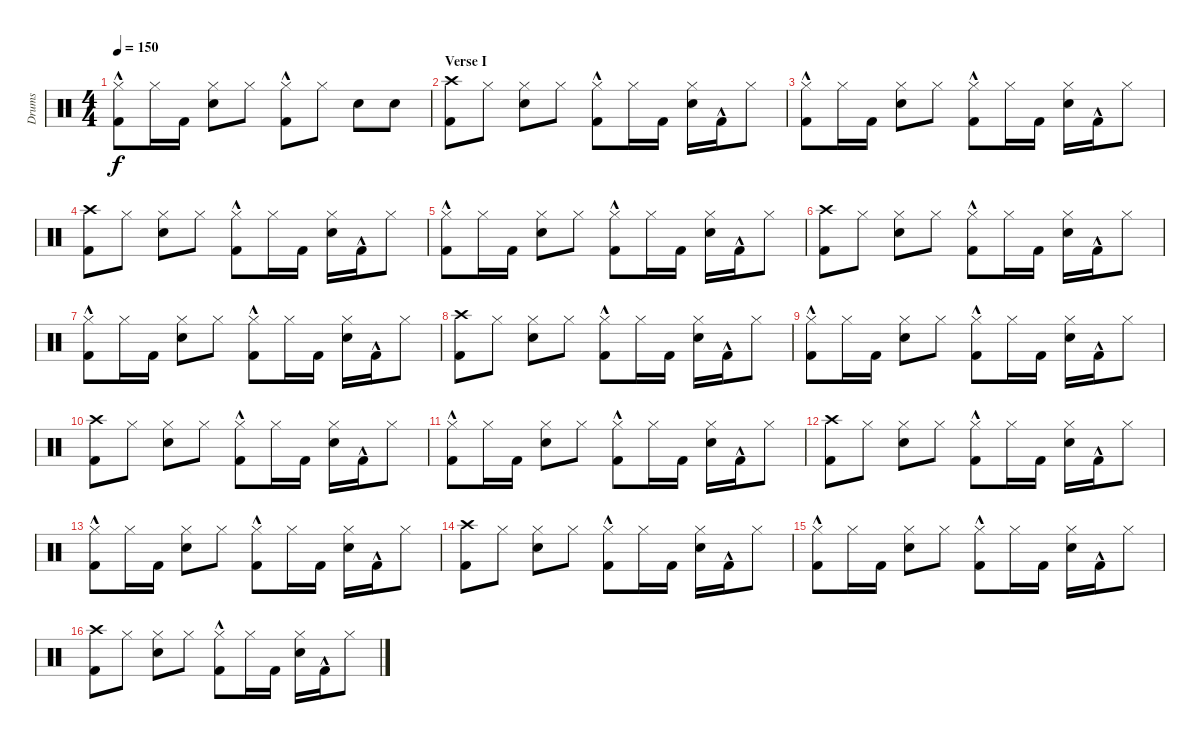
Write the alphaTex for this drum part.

\track ("Drums" "Drums") {instrument percussion}
\staff {score}
\articulation defaults
\ts (4 4)
\tempo 150
\clef neutral
\ks c
("Hi-Hat (closed)" "Kick (hit) 2"{hac}).8{dy f} "Hi-Hat (closed)".16 "Kick (hit) 2".16 ("Hi-Hat (closed)" "Electric Snare (hit)").8 "Hi-Hat (closed)".8 ("Hi-Hat (closed)" "Kick (hit) 2"{hac}).8 "Hi-Hat (closed)".8 "Electric Snare (hit)".8 "Electric Snare (hit)".8 |
\section ("" "Verse I")
("Crash high (hit)" "Kick (hit) 2").8 "Hi-Hat (closed)".8 ("Hi-Hat (closed)" "Electric Snare (hit)").8 "Hi-Hat (closed)".8 ("Hi-Hat (closed)" "Kick (hit) 2"{hac}).8 "Hi-Hat (closed)".16 "Kick (hit) 2".16 ("Hi-Hat (closed)" "Electric Snare (hit)").16 "Kick (hit) 2"{hac}.16 "Hi-Hat (closed)".8 |
("Hi-Hat (closed)" "Kick (hit) 2"{hac}).8 "Hi-Hat (closed)".16 "Kick (hit) 2".16 ("Hi-Hat (closed)" "Electric Snare (hit)").8 "Hi-Hat (closed)".8 ("Hi-Hat (closed)" "Kick (hit) 2"{hac}).8 "Hi-Hat (closed)".16 "Kick (hit) 2".16 ("Hi-Hat (closed)" "Electric Snare (hit)").16 "Kick (hit) 2"{hac}.16 "Hi-Hat (closed)".8 |
("Crash high (hit)" "Kick (hit) 2").8 "Hi-Hat (closed)".8 ("Hi-Hat (closed)" "Electric Snare (hit)").8 "Hi-Hat (closed)".8 ("Hi-Hat (closed)" "Kick (hit) 2"{hac}).8 "Hi-Hat (closed)".16 "Kick (hit) 2".16 ("Hi-Hat (closed)" "Electric Snare (hit)").16 "Kick (hit) 2"{hac}.16 "Hi-Hat (closed)".8 |
("Hi-Hat (closed)" "Kick (hit) 2"{hac}).8 "Hi-Hat (closed)".16 "Kick (hit) 2".16 ("Hi-Hat (closed)" "Electric Snare (hit)").8 "Hi-Hat (closed)".8 ("Hi-Hat (closed)" "Kick (hit) 2"{hac}).8 "Hi-Hat (closed)".16 "Kick (hit) 2".16 ("Hi-Hat (closed)" "Electric Snare (hit)").16 "Kick (hit) 2"{hac}.16 "Hi-Hat (closed)".8 |
("Crash high (hit)" "Kick (hit) 2").8 "Hi-Hat (closed)".8 ("Hi-Hat (closed)" "Electric Snare (hit)").8 "Hi-Hat (closed)".8 ("Hi-Hat (closed)" "Kick (hit) 2"{hac}).8 "Hi-Hat (closed)".16 "Kick (hit) 2".16 ("Hi-Hat (closed)" "Electric Snare (hit)").16 "Kick (hit) 2"{hac}.16 "Hi-Hat (closed)".8 |
("Hi-Hat (closed)" "Kick (hit) 2"{hac}).8 "Hi-Hat (closed)".16 "Kick (hit) 2".16 ("Hi-Hat (closed)" "Electric Snare (hit)").8 "Hi-Hat (closed)".8 ("Hi-Hat (closed)" "Kick (hit) 2"{hac}).8 "Hi-Hat (closed)".16 "Kick (hit) 2".16 ("Hi-Hat (closed)" "Electric Snare (hit)").16 "Kick (hit) 2"{hac}.16 "Hi-Hat (closed)".8 |
("Crash high (hit)" "Kick (hit) 2").8 "Hi-Hat (closed)".8 ("Hi-Hat (closed)" "Electric Snare (hit)").8 "Hi-Hat (closed)".8 ("Hi-Hat (closed)" "Kick (hit) 2"{hac}).8 "Hi-Hat (closed)".16 "Kick (hit) 2".16 ("Hi-Hat (closed)" "Electric Snare (hit)").16 "Kick (hit) 2"{hac}.16 "Hi-Hat (closed)".8 |
("Hi-Hat (closed)" "Kick (hit) 2"{hac}).8 "Hi-Hat (closed)".16 "Kick (hit) 2".16 ("Hi-Hat (closed)" "Electric Snare (hit)").8 "Hi-Hat (closed)".8 ("Hi-Hat (closed)" "Kick (hit) 2"{hac}).8 "Hi-Hat (closed)".16 "Kick (hit) 2".16 ("Hi-Hat (closed)" "Electric Snare (hit)").16 "Kick (hit) 2"{hac}.16 "Hi-Hat (closed)".8 |
("Crash high (hit)" "Kick (hit) 2").8 "Hi-Hat (closed)".8 ("Hi-Hat (closed)" "Electric Snare (hit)").8 "Hi-Hat (closed)".8 ("Hi-Hat (closed)" "Kick (hit) 2"{hac}).8 "Hi-Hat (closed)".16 "Kick (hit) 2".16 ("Hi-Hat (closed)" "Electric Snare (hit)").16 "Kick (hit) 2"{hac}.16 "Hi-Hat (closed)".8 |
("Hi-Hat (closed)" "Kick (hit) 2"{hac}).8 "Hi-Hat (closed)".16 "Kick (hit) 2".16 ("Hi-Hat (closed)" "Electric Snare (hit)").8 "Hi-Hat (closed)".8 ("Hi-Hat (closed)" "Kick (hit) 2"{hac}).8 "Hi-Hat (closed)".16 "Kick (hit) 2".16 ("Hi-Hat (closed)" "Electric Snare (hit)").16 "Kick (hit) 2"{hac}.16 "Hi-Hat (closed)".8 |
("Crash high (hit)" "Kick (hit) 2").8 "Hi-Hat (closed)".8 ("Hi-Hat (closed)" "Electric Snare (hit)").8 "Hi-Hat (closed)".8 ("Hi-Hat (closed)" "Kick (hit) 2"{hac}).8 "Hi-Hat (closed)".16 "Kick (hit) 2".16 ("Hi-Hat (closed)" "Electric Snare (hit)").16 "Kick (hit) 2"{hac}.16 "Hi-Hat (closed)".8 |
("Hi-Hat (closed)" "Kick (hit) 2"{hac}).8 "Hi-Hat (closed)".16 "Kick (hit) 2".16 ("Hi-Hat (closed)" "Electric Snare (hit)").8 "Hi-Hat (closed)".8 ("Hi-Hat (closed)" "Kick (hit) 2"{hac}).8 "Hi-Hat (closed)".16 "Kick (hit) 2".16 ("Hi-Hat (closed)" "Electric Snare (hit)").16 "Kick (hit) 2"{hac}.16 "Hi-Hat (closed)".8 |
("Crash high (hit)" "Kick (hit) 2").8 "Hi-Hat (closed)".8 ("Hi-Hat (closed)" "Electric Snare (hit)").8 "Hi-Hat (closed)".8 ("Hi-Hat (closed)" "Kick (hit) 2"{hac}).8 "Hi-Hat (closed)".16 "Kick (hit) 2".16 ("Hi-Hat (closed)" "Electric Snare (hit)").16 "Kick (hit) 2"{hac}.16 "Hi-Hat (closed)".8 |
("Hi-Hat (closed)" "Kick (hit) 2"{hac}).8 "Hi-Hat (closed)".16 "Kick (hit) 2".16 ("Hi-Hat (closed)" "Electric Snare (hit)").8 "Hi-Hat (closed)".8 ("Hi-Hat (closed)" "Kick (hit) 2"{hac}).8 "Hi-Hat (closed)".16 "Kick (hit) 2".16 ("Hi-Hat (closed)" "Electric Snare (hit)").16 "Kick (hit) 2"{hac}.16 "Hi-Hat (closed)".8 |
("Crash high (hit)" "Kick (hit) 2").8 "Hi-Hat (closed)".8 ("Hi-Hat (closed)" "Electric Snare (hit)").8 "Hi-Hat (closed)".8 ("Hi-Hat (closed)" "Kick (hit) 2"{hac}).8 "Hi-Hat (closed)".16 "Kick (hit) 2".16 ("Hi-Hat (closed)" "Electric Snare (hit)").16 "Kick (hit) 2"{hac}.16 "Hi-Hat (closed)".8
